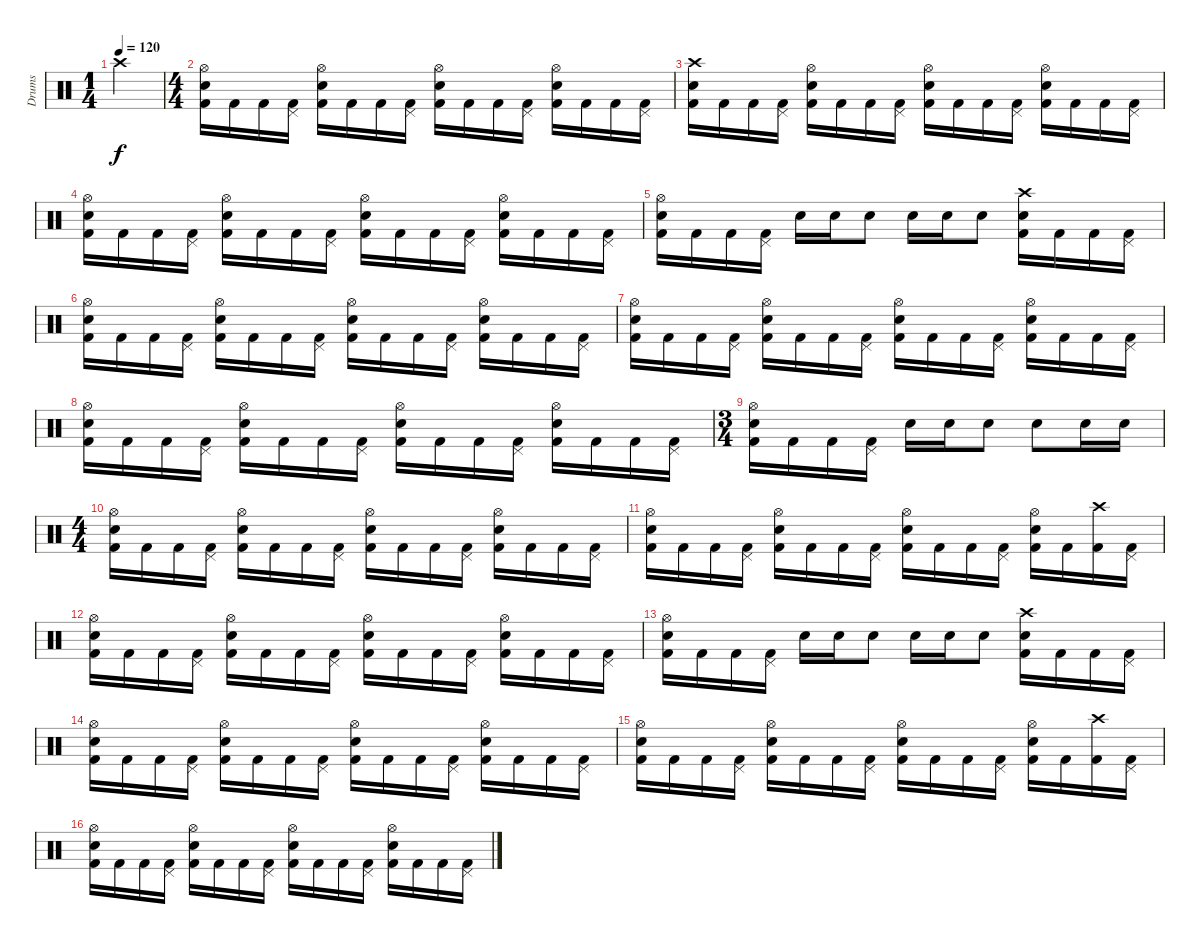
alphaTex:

\track ("Drums" "Drums") {instrument percussion}
\staff {score}
\articulation defaults
\ts (1 4)
\tempo 120
\clef neutral
\ks c "Crash high (hit)".4{dy f}
|
\ts (4 4)
("Hi-Hat (open)" "Snare (hit) 2" "Kick (hit) 2").16 "Kick (hit) 2".16 "Kick (hit) 2".16 ("Pedal Hi-Hat (hit)" "Kick (hit) 2").16 ("Hi-Hat (open)" "Snare (hit) 2" "Kick (hit) 2").16 "Kick (hit) 2".16 "Kick (hit) 2".16 ("Pedal Hi-Hat (hit)" "Kick (hit) 2").16 ("Hi-Hat (open)" "Snare (hit) 2" "Kick (hit) 2").16 "Kick (hit) 2".16 "Kick (hit) 2".16 ("Pedal Hi-Hat (hit)" "Kick (hit) 2").16 ("Hi-Hat (open)" "Snare (hit) 2" "Kick (hit) 2").16 "Kick (hit) 2".16 "Kick (hit) 2".16 ("Pedal Hi-Hat (hit)" "Kick (hit) 2").16 |
("Crash high (hit)" "Snare (hit) 2" "Kick (hit) 2").16 "Kick (hit) 2".16 "Kick (hit) 2".16 ("Pedal Hi-Hat (hit)" "Kick (hit) 2").16 ("Hi-Hat (open)" "Snare (hit) 2" "Kick (hit) 2").16 "Kick (hit) 2".16 "Kick (hit) 2".16 ("Pedal Hi-Hat (hit)" "Kick (hit) 2").16 ("Hi-Hat (open)" "Snare (hit) 2" "Kick (hit) 2").16 "Kick (hit) 2".16 "Kick (hit) 2".16 ("Pedal Hi-Hat (hit)" "Kick (hit) 2").16 ("Hi-Hat (open)" "Snare (hit) 2" "Kick (hit) 2").16 "Kick (hit) 2".16 "Kick (hit) 2".16 ("Pedal Hi-Hat (hit)" "Kick (hit) 2").16 |
("Hi-Hat (open)" "Snare (hit) 2" "Kick (hit) 2").16 "Kick (hit) 2".16 "Kick (hit) 2".16 ("Pedal Hi-Hat (hit)" "Kick (hit) 2").16 ("Hi-Hat (open)" "Snare (hit) 2" "Kick (hit) 2").16 "Kick (hit) 2".16 "Kick (hit) 2".16 ("Pedal Hi-Hat (hit)" "Kick (hit) 2").16 ("Hi-Hat (open)" "Snare (hit) 2" "Kick (hit) 2").16 "Kick (hit) 2".16 "Kick (hit) 2".16 ("Pedal Hi-Hat (hit)" "Kick (hit) 2").16 ("Hi-Hat (open)" "Snare (hit) 2" "Kick (hit) 2").16 "Kick (hit) 2".16 "Kick (hit) 2".16 ("Pedal Hi-Hat (hit)" "Kick (hit) 2").16 |
("Hi-Hat (open)" "Snare (hit) 2" "Kick (hit) 2").16 "Kick (hit) 2".16 "Kick (hit) 2".16 ("Pedal Hi-Hat (hit)" "Kick (hit) 2").16 "Electric Snare (hit)".16 "Electric Snare (hit)".16 "Electric Snare (hit)".8 "Electric Snare (hit)".16 "Electric Snare (hit)".16 "Electric Snare (hit)".8 ("Crash high (hit)" "Snare (hit) 2" "Kick (hit) 2").16 "Kick (hit) 2".16 "Kick (hit) 2".16 ("Pedal Hi-Hat (hit)" "Kick (hit) 2").16 |
("Hi-Hat (open)" "Snare (hit) 2" "Kick (hit) 2").16 "Kick (hit) 2".16 "Kick (hit) 2".16 ("Pedal Hi-Hat (hit)" "Kick (hit) 2").16 ("Hi-Hat (open)" "Snare (hit) 2" "Kick (hit) 2").16 "Kick (hit) 2".16 "Kick (hit) 2".16 ("Pedal Hi-Hat (hit)" "Kick (hit) 2").16 ("Hi-Hat (open)" "Snare (hit) 2" "Kick (hit) 2").16 "Kick (hit) 2".16 "Kick (hit) 2".16 ("Pedal Hi-Hat (hit)" "Kick (hit) 2").16 ("Hi-Hat (open)" "Snare (hit) 2" "Kick (hit) 2").16 "Kick (hit) 2".16 "Kick (hit) 2".16 ("Pedal Hi-Hat (hit)" "Kick (hit) 2").16 |
("Hi-Hat (open)" "Snare (hit) 2" "Kick (hit) 2").16 "Kick (hit) 2".16 "Kick (hit) 2".16 ("Pedal Hi-Hat (hit)" "Kick (hit) 2").16 ("Hi-Hat (open)" "Snare (hit) 2" "Kick (hit) 2").16 "Kick (hit) 2".16 "Kick (hit) 2".16 ("Pedal Hi-Hat (hit)" "Kick (hit) 2").16 ("Hi-Hat (open)" "Snare (hit) 2" "Kick (hit) 2").16 "Kick (hit) 2".16 "Kick (hit) 2".16 ("Pedal Hi-Hat (hit)" "Kick (hit) 2").16 ("Hi-Hat (open)" "Snare (hit) 2" "Kick (hit) 2").16 "Kick (hit) 2".16 "Kick (hit) 2".16 ("Pedal Hi-Hat (hit)" "Kick (hit) 2").16 |
("Hi-Hat (open)" "Snare (hit) 2" "Kick (hit) 2").16 "Kick (hit) 2".16 "Kick (hit) 2".16 ("Pedal Hi-Hat (hit)" "Kick (hit) 2").16 ("Hi-Hat (open)" "Snare (hit) 2" "Kick (hit) 2").16 "Kick (hit) 2".16 "Kick (hit) 2".16 ("Pedal Hi-Hat (hit)" "Kick (hit) 2").16 ("Hi-Hat (open)" "Snare (hit) 2" "Kick (hit) 2").16 "Kick (hit) 2".16 "Kick (hit) 2".16 ("Pedal Hi-Hat (hit)" "Kick (hit) 2").16 ("Hi-Hat (open)" "Snare (hit) 2" "Kick (hit) 2").16 "Kick (hit) 2".16 "Kick (hit) 2".16 ("Pedal Hi-Hat (hit)" "Kick (hit) 2").16 |
\ts (3 4)
("Hi-Hat (open)" "Snare (hit) 2" "Kick (hit) 2").16 "Kick (hit) 2".16 "Kick (hit) 2".16 ("Pedal Hi-Hat (hit)" "Kick (hit) 2").16 "Electric Snare (hit)".16 "Electric Snare (hit)".16 "Electric Snare (hit)".8 "Electric Snare (hit)".8 "Electric Snare (hit)".16 "Electric Snare (hit)".16 |
\ts (4 4)
("Hi-Hat (open)" "Snare (hit) 2" "Kick (hit) 2").16 "Kick (hit) 2".16 "Kick (hit) 2".16 ("Pedal Hi-Hat (hit)" "Kick (hit) 2").16 ("Hi-Hat (open)" "Snare (hit) 2" "Kick (hit) 2").16 "Kick (hit) 2".16 "Kick (hit) 2".16 ("Pedal Hi-Hat (hit)" "Kick (hit) 2").16 ("Hi-Hat (open)" "Snare (hit) 2" "Kick (hit) 2").16 "Kick (hit) 2".16 "Kick (hit) 2".16 ("Pedal Hi-Hat (hit)" "Kick (hit) 2").16 ("Hi-Hat (open)" "Snare (hit) 2" "Kick (hit) 2").16 "Kick (hit) 2".16 "Kick (hit) 2".16 ("Pedal Hi-Hat (hit)" "Kick (hit) 2").16 |
("Hi-Hat (open)" "Snare (hit) 2" "Kick (hit) 2").16 "Kick (hit) 2".16 "Kick (hit) 2".16 ("Pedal Hi-Hat (hit)" "Kick (hit) 2").16 ("Hi-Hat (open)" "Snare (hit) 2" "Kick (hit) 2").16 "Kick (hit) 2".16 "Kick (hit) 2".16 ("Pedal Hi-Hat (hit)" "Kick (hit) 2").16 ("Hi-Hat (open)" "Snare (hit) 2" "Kick (hit) 2").16 "Kick (hit) 2".16 "Kick (hit) 2".16 ("Pedal Hi-Hat (hit)" "Kick (hit) 2").16 ("Hi-Hat (open)" "Snare (hit) 2" "Kick (hit) 2").16 "Kick (hit) 2".16 ("Crash high (hit)" "Kick (hit) 2").16 ("Pedal Hi-Hat (hit)" "Kick (hit) 2").16 |
("Hi-Hat (open)" "Snare (hit) 2" "Kick (hit) 2").16 "Kick (hit) 2".16 "Kick (hit) 2".16 ("Pedal Hi-Hat (hit)" "Kick (hit) 2").16 ("Hi-Hat (open)" "Snare (hit) 2" "Kick (hit) 2").16 "Kick (hit) 2".16 "Kick (hit) 2".16 ("Pedal Hi-Hat (hit)" "Kick (hit) 2").16 ("Hi-Hat (open)" "Snare (hit) 2" "Kick (hit) 2").16 "Kick (hit) 2".16 "Kick (hit) 2".16 ("Pedal Hi-Hat (hit)" "Kick (hit) 2").16 ("Hi-Hat (open)" "Snare (hit) 2" "Kick (hit) 2").16 "Kick (hit) 2".16 "Kick (hit) 2".16 ("Pedal Hi-Hat (hit)" "Kick (hit) 2").16 |
("Hi-Hat (open)" "Snare (hit) 2" "Kick (hit) 2").16 "Kick (hit) 2".16 "Kick (hit) 2".16 ("Pedal Hi-Hat (hit)" "Kick (hit) 2").16 "Electric Snare (hit)".16 "Electric Snare (hit)".16 "Electric Snare (hit)".8 "Electric Snare (hit)".16 "Electric Snare (hit)".16 "Electric Snare (hit)".8 ("Crash high (hit)" "Snare (hit) 2" "Kick (hit) 2").16 "Kick (hit) 2".16 "Kick (hit) 2".16 ("Pedal Hi-Hat (hit)" "Kick (hit) 2").16 |
("Hi-Hat (open)" "Snare (hit) 2" "Kick (hit) 2").16 "Kick (hit) 2".16 "Kick (hit) 2".16 ("Pedal Hi-Hat (hit)" "Kick (hit) 2").16 ("Hi-Hat (open)" "Snare (hit) 2" "Kick (hit) 2").16 "Kick (hit) 2".16 "Kick (hit) 2".16 ("Pedal Hi-Hat (hit)" "Kick (hit) 2").16 ("Hi-Hat (open)" "Snare (hit) 2" "Kick (hit) 2").16 "Kick (hit) 2".16 "Kick (hit) 2".16 ("Pedal Hi-Hat (hit)" "Kick (hit) 2").16 ("Hi-Hat (open)" "Snare (hit) 2" "Kick (hit) 2").16 "Kick (hit) 2".16 "Kick (hit) 2".16 ("Pedal Hi-Hat (hit)" "Kick (hit) 2").16 |
("Hi-Hat (open)" "Snare (hit) 2" "Kick (hit) 2").16 "Kick (hit) 2".16 "Kick (hit) 2".16 ("Pedal Hi-Hat (hit)" "Kick (hit) 2").16 ("Hi-Hat (open)" "Snare (hit) 2" "Kick (hit) 2").16 "Kick (hit) 2".16 "Kick (hit) 2".16 ("Pedal Hi-Hat (hit)" "Kick (hit) 2").16 ("Hi-Hat (open)" "Snare (hit) 2" "Kick (hit) 2").16 "Kick (hit) 2".16 "Kick (hit) 2".16 ("Pedal Hi-Hat (hit)" "Kick (hit) 2").16 ("Hi-Hat (open)" "Snare (hit) 2" "Kick (hit) 2").16 "Kick (hit) 2".16 ("Crash high (hit)" "Kick (hit) 2").16 ("Pedal Hi-Hat (hit)" "Kick (hit) 2").16 |
("Hi-Hat (open)" "Snare (hit) 2" "Kick (hit) 2").16 "Kick (hit) 2".16 "Kick (hit) 2".16 ("Pedal Hi-Hat (hit)" "Kick (hit) 2").16 ("Hi-Hat (open)" "Snare (hit) 2" "Kick (hit) 2").16 "Kick (hit) 2".16 "Kick (hit) 2".16 ("Pedal Hi-Hat (hit)" "Kick (hit) 2").16 ("Hi-Hat (open)" "Snare (hit) 2" "Kick (hit) 2").16 "Kick (hit) 2".16 "Kick (hit) 2".16 ("Pedal Hi-Hat (hit)" "Kick (hit) 2").16 ("Hi-Hat (open)" "Snare (hit) 2" "Kick (hit) 2").16 "Kick (hit) 2".16 "Kick (hit) 2".16 ("Pedal Hi-Hat (hit)" "Kick (hit) 2").16
